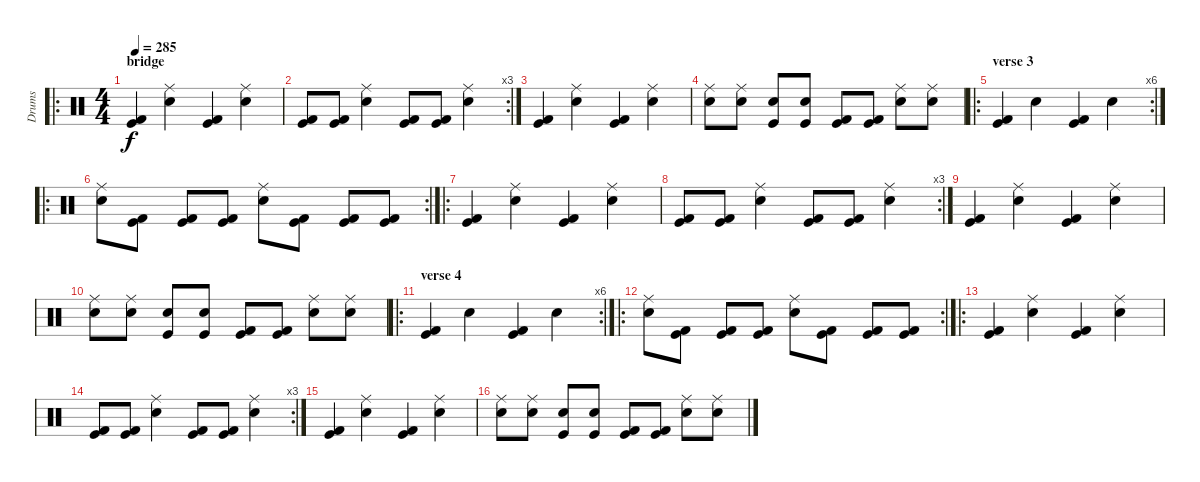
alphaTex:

\track ("Drums" "Drums") {instrument percussion}
\staff {score}
\articulation defaults
\ro
\ts (4 4)
\section ("" "bridge")
\tempo 285
\clef neutral
\ks c
("Kick (hit)" "Kick (hit) 2").4{dy f} ("Ride (middle)" "Electric Snare (hit)").4 ("Kick (hit)" "Kick (hit) 2").4 ("Ride (middle)" "Electric Snare (hit)").4 |
\rc 3
("Kick (hit)" "Kick (hit) 2").8 ("Kick (hit)" "Kick (hit) 2").8 ("Ride (middle)" "Electric Snare (hit)").4 ("Kick (hit)" "Kick (hit) 2").8 ("Kick (hit)" "Kick (hit) 2").8 ("Ride (middle)" "Electric Snare (hit)").4 |
("Kick (hit)" "Kick (hit) 2").4 ("Ride (middle)" "Electric Snare (hit)").4 ("Kick (hit)" "Kick (hit) 2").4 ("Ride (middle)" "Electric Snare (hit)").4 |
("Ride (middle)" "Electric Snare (hit)").8 ("Ride (middle)" "Electric Snare (hit)").8 ("Kick (hit)" "Snare (hit) 2").8 ("Kick (hit)" "Snare (hit) 2").8 ("Kick (hit)" "Kick (hit) 2").8 ("Kick (hit)" "Kick (hit) 2").8 ("Ride (middle)" "Electric Snare (hit)").8 ("Ride (middle)" "Electric Snare (hit)").8 |
\ro
\rc 6
\section ("" "verse 3")
("Kick (hit)" "Kick (hit) 2").4 "Electric Snare (hit)".4 ("Kick (hit)" "Kick (hit) 2").4 "Electric Snare (hit)".4 |
\ro
\rc 2
("Ride (middle)" "Electric Snare (hit)").8 ("Kick (hit)" "Kick (hit) 2").8 ("Kick (hit)" "Kick (hit) 2").8 ("Kick (hit)" "Kick (hit) 2").8 ("Ride (middle)" "Electric Snare (hit)").8 ("Kick (hit)" "Kick (hit) 2").8 ("Kick (hit)" "Kick (hit) 2").8 ("Kick (hit)" "Kick (hit) 2").8 |
\ro
("Kick (hit)" "Kick (hit) 2").4 ("Ride (middle)" "Electric Snare (hit)").4 ("Kick (hit)" "Kick (hit) 2").4 ("Ride (middle)" "Electric Snare (hit)").4 |
\rc 3
("Kick (hit)" "Kick (hit) 2").8 ("Kick (hit)" "Kick (hit) 2").8 ("Ride (middle)" "Electric Snare (hit)").4 ("Kick (hit)" "Kick (hit) 2").8 ("Kick (hit)" "Kick (hit) 2").8 ("Ride (middle)" "Electric Snare (hit)").4 |
("Kick (hit)" "Kick (hit) 2").4 ("Ride (middle)" "Electric Snare (hit)").4 ("Kick (hit)" "Kick (hit) 2").4 ("Ride (middle)" "Electric Snare (hit)").4 |
("Ride (middle)" "Electric Snare (hit)").8 ("Ride (middle)" "Electric Snare (hit)").8 ("Kick (hit)" "Snare (hit) 2").8 ("Kick (hit)" "Snare (hit) 2").8 ("Kick (hit)" "Kick (hit) 2").8 ("Kick (hit)" "Kick (hit) 2").8 ("Ride (middle)" "Electric Snare (hit)").8 ("Ride (middle)" "Electric Snare (hit)").8 |
\ro
\rc 6
\section ("" "verse 4")
("Kick (hit)" "Kick (hit) 2").4 "Electric Snare (hit)".4 ("Kick (hit)" "Kick (hit) 2").4 "Electric Snare (hit)".4 |
\ro
\rc 2
("Ride (middle)" "Electric Snare (hit)").8 ("Kick (hit)" "Kick (hit) 2").8 ("Kick (hit)" "Kick (hit) 2").8 ("Kick (hit)" "Kick (hit) 2").8 ("Ride (middle)" "Electric Snare (hit)").8 ("Kick (hit)" "Kick (hit) 2").8 ("Kick (hit)" "Kick (hit) 2").8 ("Kick (hit)" "Kick (hit) 2").8 |
\ro
("Kick (hit)" "Kick (hit) 2").4 ("Ride (middle)" "Electric Snare (hit)").4 ("Kick (hit)" "Kick (hit) 2").4 ("Ride (middle)" "Electric Snare (hit)").4 |
\rc 3
("Kick (hit)" "Kick (hit) 2").8 ("Kick (hit)" "Kick (hit) 2").8 ("Ride (middle)" "Electric Snare (hit)").4 ("Kick (hit)" "Kick (hit) 2").8 ("Kick (hit)" "Kick (hit) 2").8 ("Ride (middle)" "Electric Snare (hit)").4 |
("Kick (hit)" "Kick (hit) 2").4 ("Ride (middle)" "Electric Snare (hit)").4 ("Kick (hit)" "Kick (hit) 2").4 ("Ride (middle)" "Electric Snare (hit)").4 |
("Ride (middle)" "Electric Snare (hit)").8 ("Ride (middle)" "Electric Snare (hit)").8 ("Kick (hit)" "Snare (hit) 2").8 ("Kick (hit)" "Snare (hit) 2").8 ("Kick (hit)" "Kick (hit) 2").8 ("Kick (hit)" "Kick (hit) 2").8 ("Ride (middle)" "Electric Snare (hit)").8 ("Ride (middle)" "Electric Snare (hit)").8
